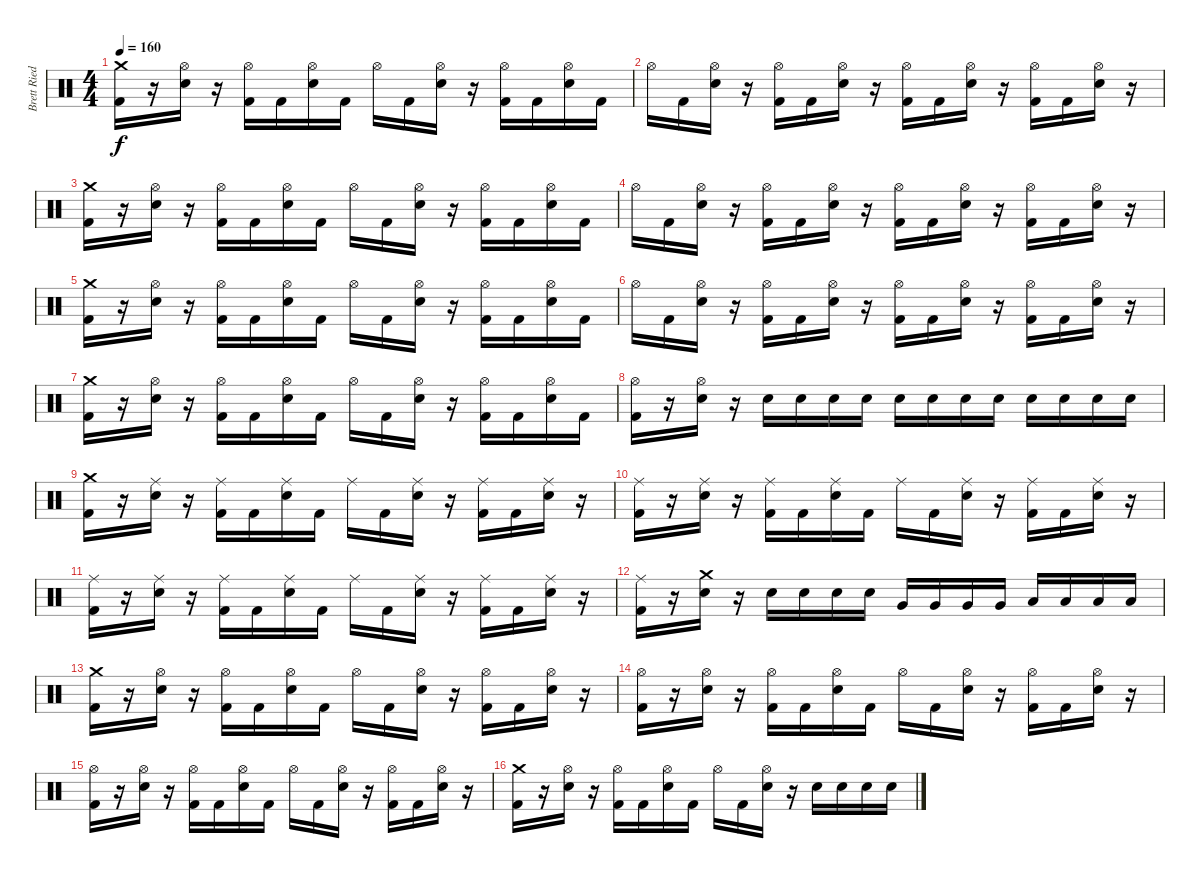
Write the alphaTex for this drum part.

\track ("Brett Ried" "Brett Ried") {instrument percussion}
\staff {score}
\articulation defaults
\ts (4 4)
\tempo 160
\clef neutral
\ks c
("Crash medium (hit)" "Kick (hit) 2").16{dy f} r.16 ("Hi-Hat (open)" "Snare (hit) 2").16 r.16 ("Hi-Hat (open)" "Kick (hit) 2").16 "Kick (hit) 2".16 ("Hi-Hat (open)" "Snare (hit) 2").16 "Kick (hit) 2".16 "Hi-Hat (open)".16 "Kick (hit) 2".16 ("Hi-Hat (open)" "Snare (hit) 2").16 r.16 ("Hi-Hat (open)" "Kick (hit) 2").16 "Kick (hit) 2".16 ("Hi-Hat (open)" "Snare (hit) 2").16 "Kick (hit) 2".16 |
"Hi-Hat (open)".16 "Kick (hit) 2".16 ("Hi-Hat (open)" "Snare (hit) 2").16 r.16 ("Hi-Hat (open)" "Kick (hit) 2").16 "Kick (hit) 2".16 ("Hi-Hat (open)" "Snare (hit) 2").16 r.16 ("Hi-Hat (open)" "Kick (hit) 2").16 "Kick (hit) 2".16 ("Hi-Hat (open)" "Snare (hit) 2").16 r.16 ("Hi-Hat (open)" "Kick (hit) 2").16 "Kick (hit) 2".16 ("Hi-Hat (open)" "Snare (hit) 2").16 r.16 |
("Crash medium (hit)" "Kick (hit) 2").16 r.16 ("Hi-Hat (open)" "Snare (hit) 2").16 r.16 ("Hi-Hat (open)" "Kick (hit) 2").16 "Kick (hit) 2".16 ("Hi-Hat (open)" "Snare (hit) 2").16 "Kick (hit) 2".16 "Hi-Hat (open)".16 "Kick (hit) 2".16 ("Hi-Hat (open)" "Snare (hit) 2").16 r.16 ("Hi-Hat (open)" "Kick (hit) 2").16 "Kick (hit) 2".16 ("Hi-Hat (open)" "Snare (hit) 2").16 "Kick (hit) 2".16 |
"Hi-Hat (open)".16 "Kick (hit) 2".16 ("Hi-Hat (open)" "Snare (hit) 2").16 r.16 ("Hi-Hat (open)" "Kick (hit) 2").16 "Kick (hit) 2".16 ("Hi-Hat (open)" "Snare (hit) 2").16 r.16 ("Hi-Hat (open)" "Kick (hit) 2").16 "Kick (hit) 2".16 ("Hi-Hat (open)" "Snare (hit) 2").16 r.16 ("Hi-Hat (open)" "Kick (hit) 2").16 "Kick (hit) 2".16 ("Hi-Hat (open)" "Snare (hit) 2").16 r.16 |
("Crash medium (hit)" "Kick (hit) 2").16 r.16 ("Hi-Hat (open)" "Snare (hit) 2").16 r.16 ("Hi-Hat (open)" "Kick (hit) 2").16 "Kick (hit) 2".16 ("Hi-Hat (open)" "Snare (hit) 2").16 "Kick (hit) 2".16 "Hi-Hat (open)".16 "Kick (hit) 2".16 ("Hi-Hat (open)" "Snare (hit) 2").16 r.16 ("Hi-Hat (open)" "Kick (hit) 2").16 "Kick (hit) 2".16 ("Hi-Hat (open)" "Snare (hit) 2").16 "Kick (hit) 2".16 |
"Hi-Hat (open)".16 "Kick (hit) 2".16 ("Hi-Hat (open)" "Snare (hit) 2").16 r.16 ("Hi-Hat (open)" "Kick (hit) 2").16 "Kick (hit) 2".16 ("Hi-Hat (open)" "Snare (hit) 2").16 r.16 ("Hi-Hat (open)" "Kick (hit) 2").16 "Kick (hit) 2".16 ("Hi-Hat (open)" "Snare (hit) 2").16 r.16 ("Hi-Hat (open)" "Kick (hit) 2").16 "Kick (hit) 2".16 ("Hi-Hat (open)" "Snare (hit) 2").16 r.16 |
("Crash medium (hit)" "Kick (hit) 2").16 r.16 ("Hi-Hat (open)" "Snare (hit) 2").16 r.16 ("Hi-Hat (open)" "Kick (hit) 2").16 "Kick (hit) 2".16 ("Hi-Hat (open)" "Snare (hit) 2").16 "Kick (hit) 2".16 "Hi-Hat (open)".16 "Kick (hit) 2".16 ("Hi-Hat (open)" "Snare (hit) 2").16 r.16 ("Hi-Hat (open)" "Kick (hit) 2").16 "Kick (hit) 2".16 ("Hi-Hat (open)" "Snare (hit) 2").16 "Kick (hit) 2".16 |
("Hi-Hat (open)" "Kick (hit) 2").16 r.16 ("Hi-Hat (open)" "Snare (hit) 2").16 r.16 "Snare (hit) 2".16 "Snare (hit) 2".16 "Snare (hit) 2".16 "Snare (hit) 2".16 "Snare (hit) 2".16 "Snare (hit) 2".16 "Snare (hit) 2".16 "Snare (hit) 2".16 "Snare (hit) 2".16 "Snare (hit) 2".16 "Snare (hit) 2".16 "Snare (hit) 2".16 |
("Crash medium (hit)" "Kick (hit) 2").16 r.16 ("Ride (middle)" "Snare (hit) 2").16 r.16 ("Ride (middle)" "Kick (hit) 2").16 "Kick (hit) 2".16 ("Ride (middle)" "Snare (hit) 2").16 "Kick (hit) 2".16 "Ride (middle)".16 "Kick (hit) 2".16 ("Ride (middle)" "Snare (hit) 2").16 r.16 ("Ride (middle)" "Kick (hit) 2").16 "Kick (hit) 2".16 ("Ride (middle)" "Snare (hit) 2").16 r.16 |
("Ride (middle)" "Kick (hit) 2").16 r.16 ("Ride (middle)" "Snare (hit) 2").16 r.16 ("Ride (middle)" "Kick (hit) 2").16 "Kick (hit) 2".16 ("Ride (middle)" "Snare (hit) 2").16 "Kick (hit) 2".16 "Ride (middle)".16 "Kick (hit) 2".16 ("Ride (middle)" "Snare (hit) 2").16 r.16 ("Ride (middle)" "Kick (hit) 2").16 "Kick (hit) 2".16 ("Ride (middle)" "Snare (hit) 2").16 r.16 |
("Ride (middle)" "Kick (hit) 2").16 r.16 ("Ride (middle)" "Snare (hit) 2").16 r.16 ("Ride (middle)" "Kick (hit) 2").16 "Kick (hit) 2".16 ("Ride (middle)" "Snare (hit) 2").16 "Kick (hit) 2".16 "Ride (middle)".16 "Kick (hit) 2".16 ("Ride (middle)" "Snare (hit) 2").16 r.16 ("Ride (middle)" "Kick (hit) 2").16 "Kick (hit) 2".16 ("Ride (middle)" "Snare (hit) 2").16 r.16 |
("Ride (middle)" "Kick (hit) 2").16 r.16 ("Crash medium (hit)" "Snare (hit) 2").16 r.16 "Snare (hit) 2".16 "Snare (hit) 2".16 "Snare (hit) 2".16 "Snare (hit) 2".16 "Very Low Tom (hit)".16 "Very Low Tom (hit)".16 "Very Low Tom (hit)".16 "Very Low Tom (hit)".16 "Low Floor Tom (hit)".16 "Low Floor Tom (hit)".16 "Low Floor Tom (hit)".16 "Low Floor Tom (hit)".16 |
("Crash medium (hit)" "Kick (hit) 2").16 r.16 ("Hi-Hat (open)" "Snare (hit) 2").16 r.16 ("Hi-Hat (open)" "Kick (hit) 2").16 "Kick (hit) 2".16 ("Hi-Hat (open)" "Snare (hit) 2").16 "Kick (hit) 2".16 "Hi-Hat (open)".16 "Kick (hit) 2".16 ("Hi-Hat (open)" "Snare (hit) 2").16 r.16 ("Hi-Hat (open)" "Kick (hit) 2").16 "Kick (hit) 2".16 ("Hi-Hat (open)" "Snare (hit) 2").16 r.16 |
("Hi-Hat (open)" "Kick (hit) 2").16 r.16 ("Hi-Hat (open)" "Snare (hit) 2").16 r.16 ("Hi-Hat (open)" "Kick (hit) 2").16 "Kick (hit) 2".16 ("Hi-Hat (open)" "Snare (hit) 2").16 "Kick (hit) 2".16 "Hi-Hat (open)".16 "Kick (hit) 2".16 ("Hi-Hat (open)" "Snare (hit) 2").16 r.16 ("Hi-Hat (open)" "Kick (hit) 2").16 "Kick (hit) 2".16 ("Hi-Hat (open)" "Snare (hit) 2").16 r.16 |
("Hi-Hat (open)" "Kick (hit) 2").16 r.16 ("Hi-Hat (open)" "Snare (hit) 2").16 r.16 ("Hi-Hat (open)" "Kick (hit) 2").16 "Kick (hit) 2".16 ("Hi-Hat (open)" "Snare (hit) 2").16 "Kick (hit) 2".16 "Hi-Hat (open)".16 "Kick (hit) 2".16 ("Hi-Hat (open)" "Snare (hit) 2").16 r.16 ("Hi-Hat (open)" "Kick (hit) 2").16 "Kick (hit) 2".16 ("Hi-Hat (open)" "Snare (hit) 2").16 r.16 |
("Crash medium (hit)" "Kick (hit) 2").16 r.16 ("Hi-Hat (open)" "Snare (hit) 2").16 r.16 ("Hi-Hat (open)" "Kick (hit) 2").16 "Kick (hit) 2".16 ("Hi-Hat (open)" "Snare (hit) 2").16 "Kick (hit) 2".16 "Hi-Hat (open)".16 "Kick (hit) 2".16 ("Hi-Hat (open)" "Snare (hit) 2").16 r.16 "Snare (hit) 2".16 "Snare (hit) 2".16 "Snare (hit) 2".16 "Snare (hit) 2".16
